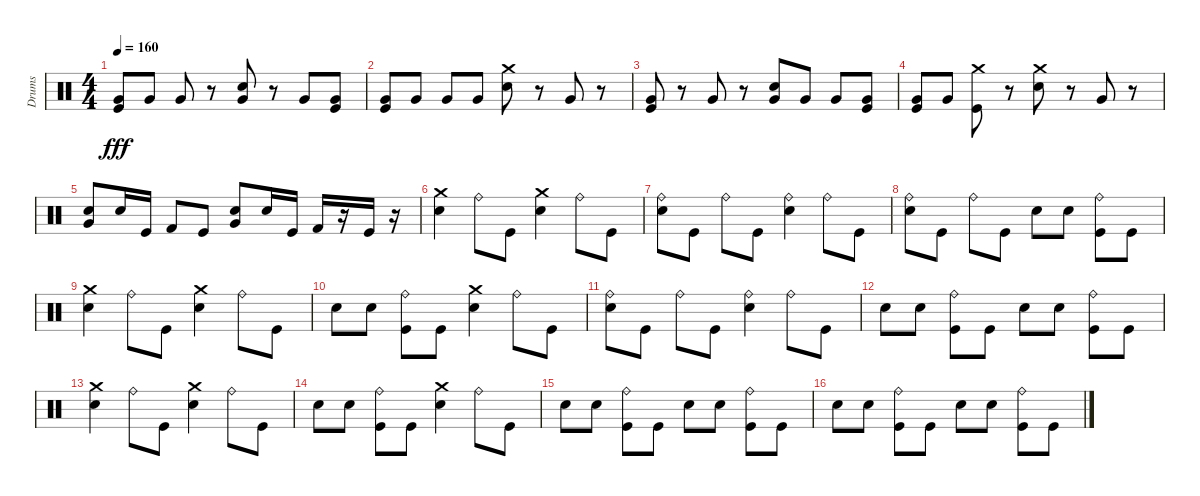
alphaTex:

\track ("Drums" "Drums") {instrument percussion}
\staff {score}
\articulation defaults
\ts (4 4)
\tempo 160
\clef neutral
\ks c
("Very Low Tom (hit)" "Kick (hit)").8{dy fff} "Very Low Tom (hit)".8 "Very Low Tom (hit)".8 r.8 ("Very Low Tom (hit)" "Snare (hit) 2").8 r.8 "Very Low Tom (hit)".8 ("Kick (hit)" "Very Low Tom (hit)").8 |
("Very Low Tom (hit)" "Kick (hit)").8 "Very Low Tom (hit)".8 "Very Low Tom (hit)".8 "Very Low Tom (hit)".8 ("Crash medium (hit)" "Snare (hit) 2").8 r.8 "Very Low Tom (hit)".8 r.8 |
("Kick (hit)" "Very Low Tom (hit)").8 r.8 "Very Low Tom (hit)".8 r.8 ("Snare (hit) 2" "Very Low Tom (hit)").8 "Very Low Tom (hit)".8 "Very Low Tom (hit)".8 ("Kick (hit)" "Very Low Tom (hit)").8 |
("Very Low Tom (hit)" "Kick (hit)").8 "Very Low Tom (hit)".8 ("Crash medium (hit)" "Kick (hit)").8 r.8 ("Snare (hit) 2" "Crash medium (hit)").8 r.8 "Very Low Tom (hit)".8 r.8 |
("Very Low Tom (hit)" "Snare (hit) 2").8 "Snare (hit) 2".16 "Kick (hit)".16 "Kick (hit) 2".8 "Kick (hit)".8 ("Very Low Tom (hit)" "Snare (hit) 2").8 "Snare (hit) 2".16 "Kick (hit)".16 "Kick (hit) 2".16 r.16 "Kick (hit)".16 r.16 |
("Snare (hit) 2" "Crash medium (hit)").4 "Ride (bell)".8 "Kick (hit)".8 ("Crash medium (hit)" "Snare (hit) 2").4 "Ride (bell)".8 "Kick (hit)".8 |
("Snare (hit) 2" "Ride (bell)").8 "Kick (hit)".8 "Ride (bell)".8 "Kick (hit)".8 ("Snare (hit) 2" "Ride (bell)").4 "Ride (bell)".8 "Kick (hit)".8 |
("Snare (hit) 2" "Ride (bell)").8 "Kick (hit)".8 "Ride (bell)".8 "Kick (hit)".8 "Snare (hit) 2".8 "Snare (hit) 2".8 ("Kick (hit)" "Ride (bell)").8 "Kick (hit)".8 |
("Snare (hit) 2" "Crash medium (hit)").4 "Ride (bell)".8 "Kick (hit)".8 ("Snare (hit) 2" "Crash medium (hit)").4 "Ride (bell)".8 "Kick (hit)".8 |
"Snare (hit) 2".8 "Snare (hit) 2".8 ("Kick (hit)" "Ride (bell)").8 "Kick (hit)".8 ("Crash medium (hit)" "Snare (hit) 2").4 "Ride (bell)".8 "Kick (hit)".8 |
("Snare (hit) 2" "Ride (bell)").8 "Kick (hit)".8 "Ride (bell)".8 "Kick (hit)".8 ("Snare (hit) 2" "Ride (bell)").4 "Ride (bell)".8 "Kick (hit)".8 |
"Snare (hit) 2".8 "Snare (hit) 2".8 ("Kick (hit)" "Ride (bell)").8 "Kick (hit)".8 "Snare (hit) 2".8 "Snare (hit) 2".8 ("Kick (hit)" "Ride (bell)").8 "Kick (hit)".8 |
("Snare (hit) 2" "Crash medium (hit)").4 "Ride (bell)".8 "Kick (hit)".8 ("Snare (hit) 2" "Crash medium (hit)").4 "Ride (bell)".8 "Kick (hit)".8 |
"Snare (hit) 2".8 "Snare (hit) 2".8 ("Kick (hit)" "Ride (bell)").8 "Kick (hit)".8 ("Snare (hit) 2" "Crash medium (hit)").4 "Ride (bell)".8 "Kick (hit)".8 |
"Snare (hit) 2".8 "Snare (hit) 2".8 ("Kick (hit)" "Ride (bell)").8 "Kick (hit)".8 "Snare (hit) 2".8 "Snare (hit) 2".8 ("Kick (hit)" "Ride (bell)").8 "Kick (hit)".8 |
"Snare (hit) 2".8 "Snare (hit) 2".8 ("Kick (hit)" "Ride (bell)").8 "Kick (hit)".8 "Snare (hit) 2".8 "Snare (hit) 2".8 ("Kick (hit)" "Ride (bell)").8 "Kick (hit)".8
